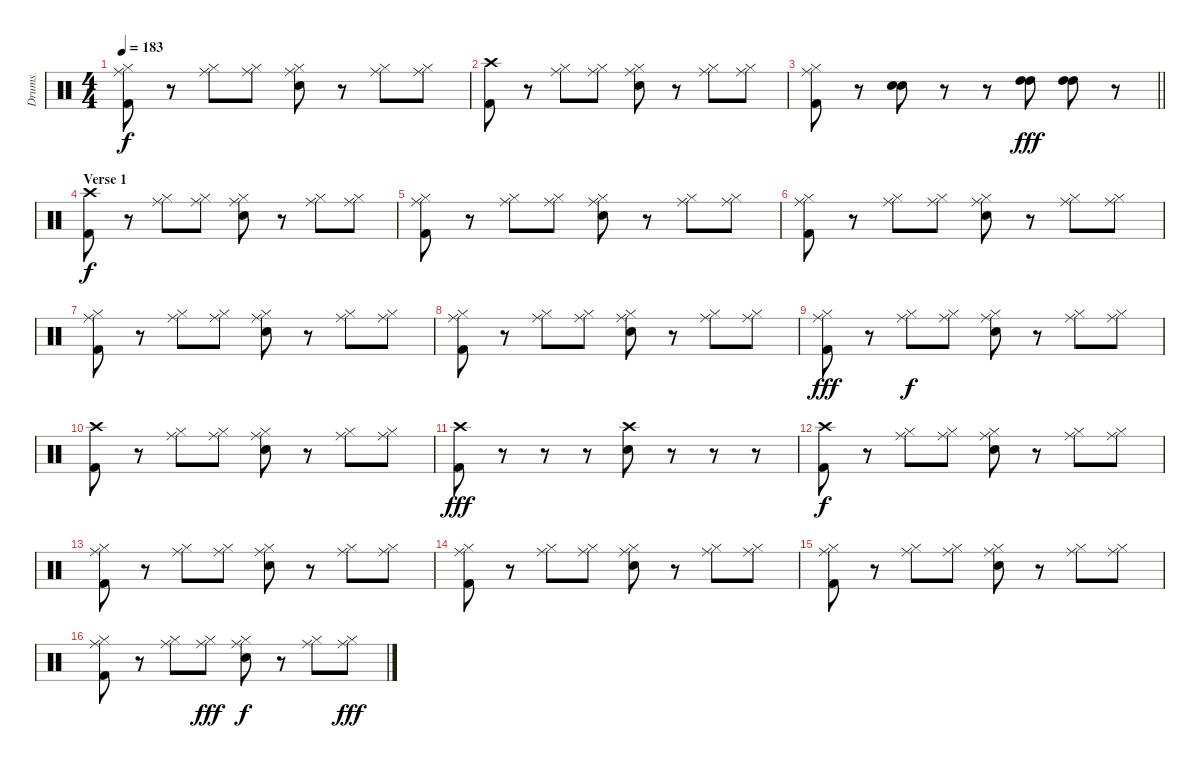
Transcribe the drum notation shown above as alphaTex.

\track ("Drums" "Drums") {instrument percussion}
\staff {score}
\articulation defaults
\ts (4 4)
\tempo 183
\clef neutral
\ks c
("Ride (middle)" "Hi-Hat (closed)" "Kick (hit) 2").8{dy f} r.8 ("Ride (middle)" "Hi-Hat (closed)").8 ("Ride (middle)" "Hi-Hat (closed)").8 ("Ride (middle)" "Hi-Hat (closed)" "Snare (hit) 2").8 r.8 ("Ride (middle)" "Hi-Hat (closed)").8 ("Ride (middle)" "Hi-Hat (closed)").8 |
("Crash high (hit)" "Kick (hit) 2").8 r.8 ("Ride (middle)" "Hi-Hat (closed)").8 ("Ride (middle)" "Hi-Hat (closed)").8 ("Ride (middle)" "Hi-Hat (closed)" "Snare (hit) 2").8 r.8 ("Ride (middle)" "Hi-Hat (closed)").8 ("Ride (middle)" "Hi-Hat (closed)").8 |
\barLineRight lightlight
("Ride (middle)" "Hi-Hat (closed)" "Kick (hit) 2").8 r.8 ("Snare (hit) 2" "Snare (hit) 2").8 r.8 r.8 ("High Tom (hit)" "High Tom (hit)").8{dy fff} ("High Tom (hit)" "High Tom (hit)").8 r.8 |
\section ("" "Verse 1")
("Crash high (hit)" "Kick (hit) 2").8{dy f} r.8 ("Ride (middle)" "Hi-Hat (closed)").8 ("Ride (middle)" "Hi-Hat (closed)").8 ("Ride (middle)" "Hi-Hat (closed)" "Snare (hit) 2").8 r.8 ("Ride (middle)" "Hi-Hat (closed)").8 ("Ride (middle)" "Hi-Hat (closed)").8 |
("Ride (middle)" "Hi-Hat (closed)" "Kick (hit) 2").8 r.8 ("Ride (middle)" "Hi-Hat (closed)").8 ("Ride (middle)" "Hi-Hat (closed)").8 ("Ride (middle)" "Hi-Hat (closed)" "Snare (hit) 2").8 r.8 ("Ride (middle)" "Hi-Hat (closed)").8 ("Ride (middle)" "Hi-Hat (closed)").8 |
("Ride (middle)" "Hi-Hat (closed)" "Kick (hit) 2").8 r.8 ("Ride (middle)" "Hi-Hat (closed)").8 ("Ride (middle)" "Hi-Hat (closed)").8 ("Ride (middle)" "Hi-Hat (closed)" "Snare (hit) 2").8 r.8 ("Ride (middle)" "Hi-Hat (closed)").8 ("Ride (middle)" "Hi-Hat (closed)").8 |
("Ride (middle)" "Hi-Hat (closed)" "Kick (hit) 2").8 r.8 ("Ride (middle)" "Hi-Hat (closed)").8 ("Ride (middle)" "Hi-Hat (closed)").8 ("Ride (middle)" "Hi-Hat (closed)" "Snare (hit) 2").8 r.8 ("Ride (middle)" "Hi-Hat (closed)").8 ("Ride (middle)" "Hi-Hat (closed)").8 |
("Ride (middle)" "Hi-Hat (closed)" "Kick (hit) 2").8 r.8 ("Ride (middle)" "Hi-Hat (closed)").8 ("Ride (middle)" "Hi-Hat (closed)").8 ("Ride (middle)" "Hi-Hat (closed)" "Snare (hit) 2").8 r.8 ("Ride (middle)" "Hi-Hat (closed)").8 ("Ride (middle)" "Hi-Hat (closed)").8 |
("Ride (middle)" "Hi-Hat (closed)" "Kick (hit) 2").8{dy fff} r.8 ("Ride (middle)" "Hi-Hat (closed)").8{dy f} ("Ride (middle)" "Hi-Hat (closed)").8 ("Ride (middle)" "Hi-Hat (closed)" "Snare (hit) 2").8 r.8 ("Ride (middle)" "Hi-Hat (closed)").8 ("Ride (middle)" "Hi-Hat (closed)").8 |
("Crash high (hit)" "Kick (hit) 2").8 r.8 ("Ride (middle)" "Hi-Hat (closed)").8 ("Ride (middle)" "Hi-Hat (closed)").8 ("Ride (middle)" "Hi-Hat (closed)" "Snare (hit) 2").8 r.8 ("Ride (middle)" "Hi-Hat (closed)").8 ("Ride (middle)" "Hi-Hat (closed)").8 |
("Crash high (hit)" "Kick (hit) 2").8{dy fff} r.8 r.8 r.8 ("Crash high (hit)" "Snare (hit) 2").8 r.8 r.8 r.8 |
("Crash high (hit)" "Kick (hit) 2").8{dy f} r.8 ("Ride (middle)" "Hi-Hat (closed)").8 ("Ride (middle)" "Hi-Hat (closed)").8 ("Ride (middle)" "Hi-Hat (closed)" "Snare (hit) 2").8 r.8 ("Ride (middle)" "Hi-Hat (closed)").8 ("Ride (middle)" "Hi-Hat (closed)").8 |
("Ride (middle)" "Hi-Hat (closed)" "Kick (hit) 2").8 r.8 ("Ride (middle)" "Hi-Hat (closed)").8 ("Ride (middle)" "Hi-Hat (closed)").8 ("Ride (middle)" "Hi-Hat (closed)" "Snare (hit) 2").8 r.8 ("Ride (middle)" "Hi-Hat (closed)").8 ("Ride (middle)" "Hi-Hat (closed)").8 |
("Ride (middle)" "Hi-Hat (closed)" "Kick (hit) 2").8 r.8 ("Ride (middle)" "Hi-Hat (closed)").8 ("Ride (middle)" "Hi-Hat (closed)").8 ("Ride (middle)" "Hi-Hat (closed)" "Snare (hit) 2").8 r.8 ("Ride (middle)" "Hi-Hat (closed)").8 ("Ride (middle)" "Hi-Hat (closed)").8 |
("Ride (middle)" "Hi-Hat (closed)" "Kick (hit) 2").8 r.8 ("Ride (middle)" "Hi-Hat (closed)").8 ("Ride (middle)" "Hi-Hat (closed)").8 ("Ride (middle)" "Hi-Hat (closed)" "Snare (hit) 2").8 r.8 ("Ride (middle)" "Hi-Hat (closed)").8 ("Ride (middle)" "Hi-Hat (closed)").8 |
("Ride (middle)" "Hi-Hat (closed)" "Kick (hit) 2").8 r.8 ("Ride (middle)" "Hi-Hat (closed)").8 ("Ride (middle)" "Hi-Hat (closed)").8{dy fff} ("Ride (middle)" "Hi-Hat (closed)" "Snare (hit) 2").8{dy f} r.8 ("Ride (middle)" "Hi-Hat (closed)").8 ("Ride (middle)" "Hi-Hat (closed)").8{dy fff}
